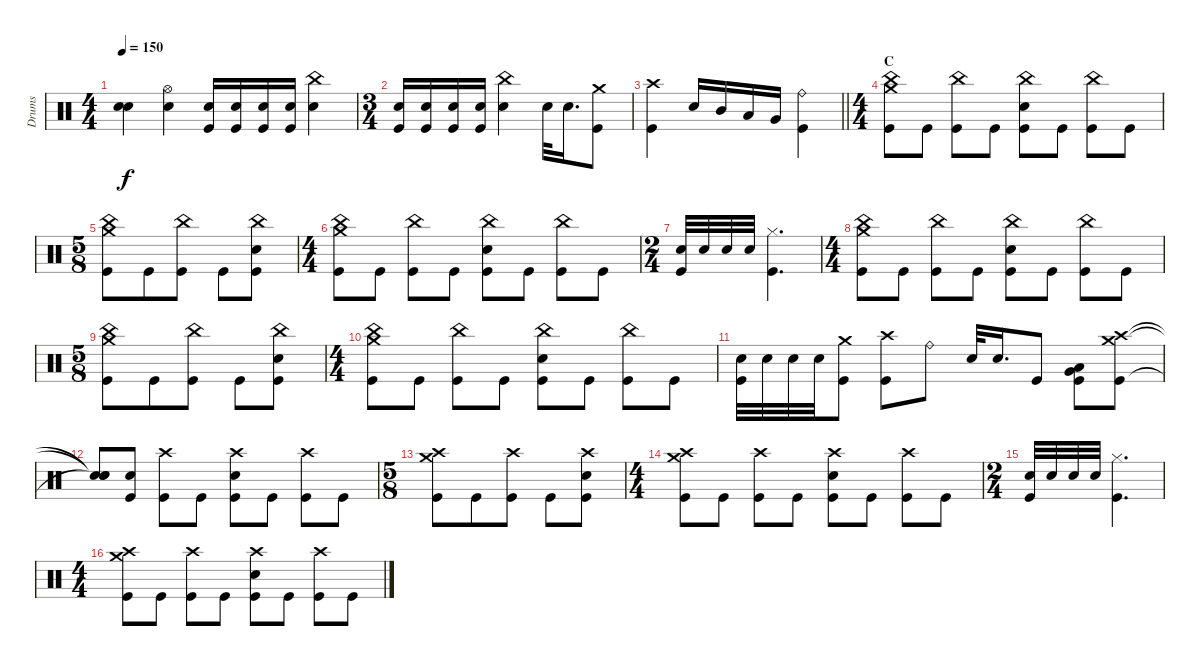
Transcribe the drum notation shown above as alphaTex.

\track ("Drums" "Drums") {instrument percussion}
\staff {score}
\articulation defaults
\ts (4 4)
\tempo 150
\clef neutral
\ks c
("Snare (hit)"{t} "Snare (hit)"{t}).4{dy f} ("Hi-Hat (open)" "Electric Snare (hit)").4 ("Electric Snare (hit)" "Kick (hit)").16 ("Electric Snare (hit)" "Kick (hit)").16 ("Electric Snare (hit)" "Kick (hit)").16 ("Electric Snare (hit)" "Kick (hit)").16 ("China (hit)" "Electric Snare (hit)").4 |
\ts (3 4)
("Electric Snare (hit)" "Kick (hit)").16 ("Electric Snare (hit)" "Kick (hit)").16 ("Electric Snare (hit)" "Kick (hit)").16 ("Electric Snare (hit)" "Kick (hit)").16 ("China (hit)" "Electric Snare (hit)").4 "Electric Snare (hit)".32 "Electric Snare (hit)".16{d} ("Crash medium (hit)" "Kick (hit)").8 |
\barLineRight lightlight
("Crash high (hit)" "Kick (hit)").4 "Electric Snare (hit)".16 "Mid Tom (hit)".16 "Low Tom (hit)".16 "Very Low Tom (hit)".16 ("Ride (bell)" "Kick (hit)").4 |
\ts (4 4)
\section ("" "C")
("Crash medium (hit)" "China (hit)" "Kick (hit)").8 "Kick (hit)".8 ("China (hit)" "Kick (hit)").8 "Kick (hit)".8 ("China (hit)" "Electric Snare (hit)" "Kick (hit)").8 "Kick (hit)".8 ("China (hit)" "Kick (hit)").8 "Kick (hit)".8 |
\ts (5 8)
("Crash medium (hit)" "China (hit)" "Kick (hit)").8 "Kick (hit)".8 ("China (hit)" "Kick (hit)").8 "Kick (hit)".8 ("China (hit)" "Electric Snare (hit)" "Kick (hit)").8 |
\ts (4 4)
("Crash medium (hit)" "China (hit)" "Kick (hit)").8 "Kick (hit)".8 ("China (hit)" "Kick (hit)").8 "Kick (hit)".8 ("China (hit)" "Electric Snare (hit)" "Kick (hit)").8 "Kick (hit)".8 ("China (hit)" "Kick (hit)").8 "Kick (hit)".8 |
\ts (2 4)
("Electric Snare (hit)" "Kick (hit)").32 "Electric Snare (hit)".32 "Electric Snare (hit)".32 "Electric Snare (hit)".32 ("Hi-Hat (closed)" "Kick (hit)").4{d} |
\ts (4 4)
("Crash medium (hit)" "China (hit)" "Kick (hit)").8 "Kick (hit)".8 ("China (hit)" "Kick (hit)").8 "Kick (hit)".8 ("China (hit)" "Electric Snare (hit)" "Kick (hit)").8 "Kick (hit)".8 ("China (hit)" "Kick (hit)").8 "Kick (hit)".8 |
\ts (5 8)
("Crash medium (hit)" "China (hit)" "Kick (hit)").8 "Kick (hit)".8 ("China (hit)" "Kick (hit)").8 "Kick (hit)".8 ("China (hit)" "Electric Snare (hit)" "Kick (hit)").8 |
\ts (4 4)
("Crash medium (hit)" "China (hit)" "Kick (hit)").8 "Kick (hit)".8 ("China (hit)" "Kick (hit)").8 "Kick (hit)".8 ("China (hit)" "Electric Snare (hit)" "Kick (hit)").8 "Kick (hit)".8 ("China (hit)" "Kick (hit)").8 "Kick (hit)".8 |
("Electric Snare (hit)" "Kick (hit)").32 "Electric Snare (hit)".32 "Electric Snare (hit)".32 "Electric Snare (hit)".32 ("Crash medium (hit)" "Kick (hit)").8 ("Crash high (hit)" "Kick (hit)").8 "Ride (bell)".8 "Electric Snare (hit)".32 "Electric Snare (hit)".16{d} "Kick (hit)".8 ("Low Tom (hit)" "Very Low Tom (hit)" "Kick (hit)").8 ("Crash medium (hit)" "Crash high (hit)" "Kick (hit)").8 |
("Snare (hit)"{t} "Snare (hit)"{t} "Snare (hit)"{t}).8 ("Electric Snare (hit)" "Kick (hit)").8 ("Crash high (hit)" "Kick (hit)").8 "Kick (hit)".8 ("Crash high (hit)" "Electric Snare (hit)" "Kick (hit)").8 "Kick (hit)".8 ("Crash high (hit)" "Kick (hit)").8 "Kick (hit)".8 |
\ts (5 8)
("Crash medium (hit)" "Crash high (hit)" "Kick (hit)").8 "Kick (hit)".8 ("Crash high (hit)" "Kick (hit)").8 "Kick (hit)".8 ("Crash high (hit)" "Electric Snare (hit)" "Kick (hit)").8 |
\ts (4 4)
("Crash medium (hit)" "Crash high (hit)" "Kick (hit)").8 "Kick (hit)".8 ("Crash high (hit)" "Kick (hit)").8 "Kick (hit)".8 ("Crash high (hit)" "Electric Snare (hit)" "Kick (hit)").8 "Kick (hit)".8 ("Crash high (hit)" "Kick (hit)").8 "Kick (hit)".8 |
\ts (2 4)
("Electric Snare (hit)" "Kick (hit)").32 "Electric Snare (hit)".32 "Electric Snare (hit)".32 "Electric Snare (hit)".32 ("Hi-Hat (closed)" "Kick (hit)").4{d} |
\ts (4 4)
("Crash medium (hit)" "Crash high (hit)" "Kick (hit)").8 "Kick (hit)".8 ("Crash high (hit)" "Kick (hit)").8 "Kick (hit)".8 ("Crash high (hit)" "Electric Snare (hit)" "Kick (hit)").8 "Kick (hit)".8 ("Crash high (hit)" "Kick (hit)").8 "Kick (hit)".8
